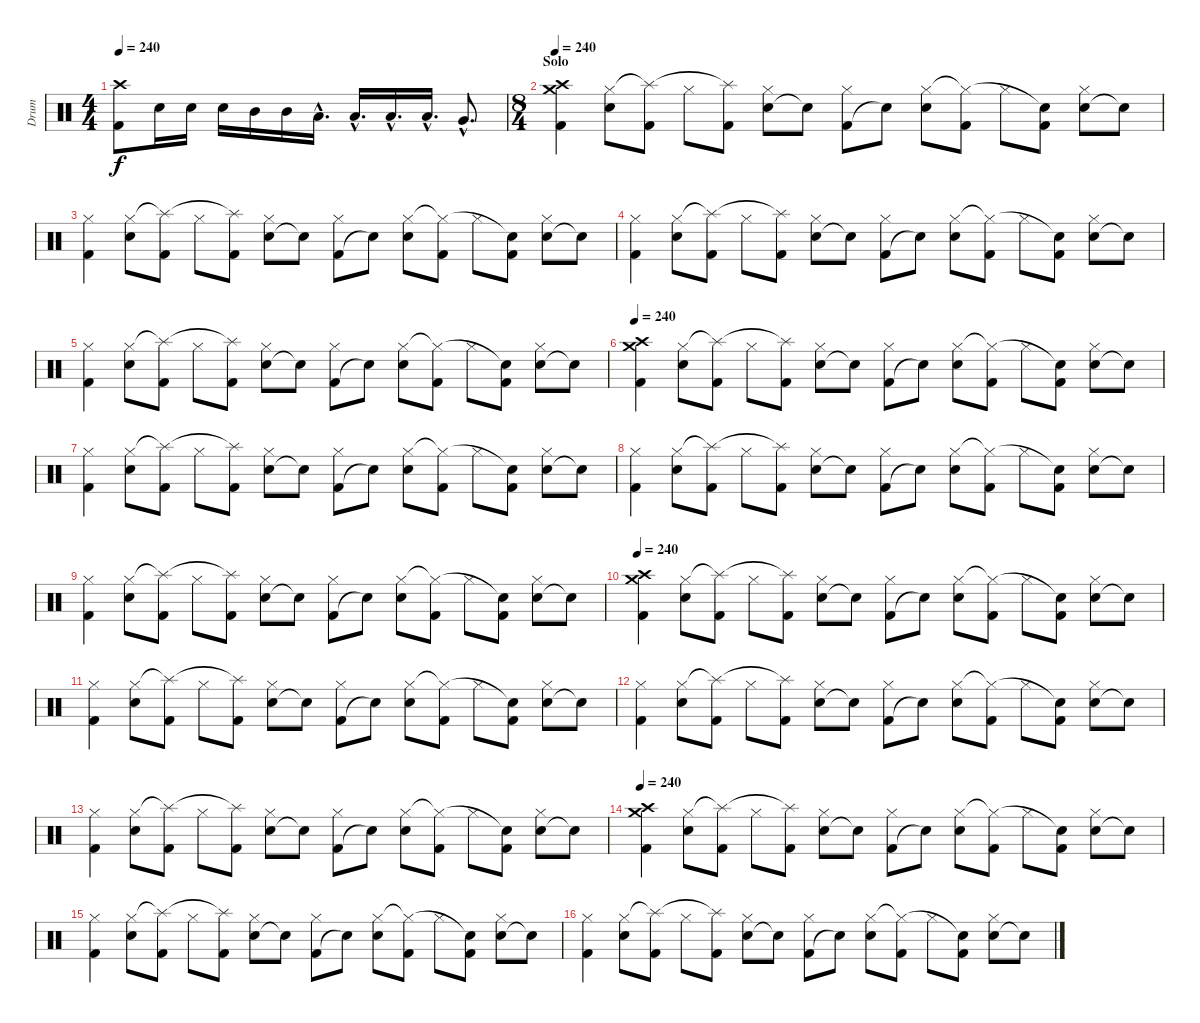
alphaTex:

\track ("Drum" "Drum") {instrument percussion}
\staff {score}
\articulation defaults
\ts (4 4)
\tempo 240
\clef neutral
\ks c
("Kick (hit) 2" "Crash high (hit)").8{dy f} "Electric Snare (hit)".16 "Electric Snare (hit)".16 "Electric Snare (hit)".16 "Mid Tom (hit)".16 "Mid Tom (hit)".16 "Low Tom (hit)"{hac}.16{d} "Low Tom (hit)"{hac}.16{d} "Low Floor Tom (hit)"{hac}.16{d} "Low Floor Tom (hit)"{hac}.16{d} "Very Low Tom (hit)"{hac}.8{d} |
\ts (8 4)
\section ("" "Solo")
\tempo 240
("Kick (hit) 2" "Crash high (hit)" "Crash medium (hit)").4 ("Electric Snare (hit)" "Hi-Hat (closed)").8 ("Kick (hit) 2" "Splash (hit)"{t}).8 "Hi-Hat (closed)".8 ("Kick (hit) 2" "Splash (hit)"{t}).8 ("Electric Snare (hit)" "Hi-Hat (closed)").8 "Snare (hit)"{t}.8 ("Kick (hit) 2" "Hi-Hat (closed)").8 "Snare (hit)"{t}.8 ("Electric Snare (hit)" "Hi-Hat (closed)").8 ("Kick (hit) 2" "Hi-Hat (closed)"{t}).8 "Hi-Hat (closed)".8 ("Kick (hit) 2" "Snare (hit)"{t}).8 ("Electric Snare (hit)" "Hi-Hat (closed)").8 "Snare (hit)"{t}.8 |
("Kick (hit) 2" "Hi-Hat (closed)").4 ("Electric Snare (hit)" "Hi-Hat (closed)").8 ("Kick (hit) 2" "Splash (hit)"{t}).8 "Hi-Hat (closed)".8 ("Kick (hit) 2" "Splash (hit)"{t}).8 ("Electric Snare (hit)" "Hi-Hat (closed)").8 "Snare (hit)"{t}.8 ("Kick (hit) 2" "Hi-Hat (closed)").8 "Snare (hit)"{t}.8 ("Electric Snare (hit)" "Hi-Hat (closed)").8 ("Kick (hit) 2" "Hi-Hat (closed)"{t}).8 "Hi-Hat (closed)".8 ("Kick (hit) 2" "Snare (hit)"{t}).8 ("Electric Snare (hit)" "Hi-Hat (closed)").8 "Snare (hit)"{t}.8 |
("Kick (hit) 2" "Hi-Hat (closed)").4 ("Electric Snare (hit)" "Hi-Hat (closed)").8 ("Kick (hit) 2" "Splash (hit)"{t}).8 "Hi-Hat (closed)".8 ("Kick (hit) 2" "Splash (hit)"{t}).8 ("Electric Snare (hit)" "Hi-Hat (closed)").8 "Snare (hit)"{t}.8 ("Kick (hit) 2" "Hi-Hat (closed)").8 "Snare (hit)"{t}.8 ("Electric Snare (hit)" "Hi-Hat (closed)").8 ("Kick (hit) 2" "Hi-Hat (closed)"{t}).8 "Hi-Hat (closed)".8 ("Kick (hit) 2" "Snare (hit)"{t}).8 ("Electric Snare (hit)" "Hi-Hat (closed)").8 "Snare (hit)"{t}.8 |
("Kick (hit) 2" "Hi-Hat (closed)").4 ("Electric Snare (hit)" "Hi-Hat (closed)").8 ("Kick (hit) 2" "Splash (hit)"{t}).8 "Hi-Hat (closed)".8 ("Kick (hit) 2" "Splash (hit)"{t}).8 ("Electric Snare (hit)" "Hi-Hat (closed)").8 "Snare (hit)"{t}.8 ("Kick (hit) 2" "Hi-Hat (closed)").8 "Snare (hit)"{t}.8 ("Electric Snare (hit)" "Hi-Hat (closed)").8 ("Kick (hit) 2" "Hi-Hat (closed)"{t}).8 "Hi-Hat (closed)".8 ("Kick (hit) 2" "Snare (hit)"{t}).8 ("Electric Snare (hit)" "Hi-Hat (closed)").8 "Snare (hit)"{t}.8 |
\tempo 240
("Kick (hit) 2" "Crash high (hit)" "Crash medium (hit)").4 ("Electric Snare (hit)" "Hi-Hat (closed)").8 ("Kick (hit) 2" "Splash (hit)"{t}).8 "Hi-Hat (closed)".8 ("Kick (hit) 2" "Splash (hit)"{t}).8 ("Electric Snare (hit)" "Hi-Hat (closed)").8 "Snare (hit)"{t}.8 ("Kick (hit) 2" "Hi-Hat (closed)").8 "Snare (hit)"{t}.8 ("Electric Snare (hit)" "Hi-Hat (closed)").8 ("Kick (hit) 2" "Hi-Hat (closed)"{t}).8 "Hi-Hat (closed)".8 ("Kick (hit) 2" "Snare (hit)"{t}).8 ("Electric Snare (hit)" "Hi-Hat (closed)").8 "Snare (hit)"{t}.8 |
("Kick (hit) 2" "Hi-Hat (closed)").4 ("Electric Snare (hit)" "Hi-Hat (closed)").8 ("Kick (hit) 2" "Splash (hit)"{t}).8 "Hi-Hat (closed)".8 ("Kick (hit) 2" "Splash (hit)"{t}).8 ("Electric Snare (hit)" "Hi-Hat (closed)").8 "Snare (hit)"{t}.8 ("Kick (hit) 2" "Hi-Hat (closed)").8 "Snare (hit)"{t}.8 ("Electric Snare (hit)" "Hi-Hat (closed)").8 ("Kick (hit) 2" "Hi-Hat (closed)"{t}).8 "Hi-Hat (closed)".8 ("Kick (hit) 2" "Snare (hit)"{t}).8 ("Electric Snare (hit)" "Hi-Hat (closed)").8 "Snare (hit)"{t}.8 |
("Kick (hit) 2" "Hi-Hat (closed)").4 ("Electric Snare (hit)" "Hi-Hat (closed)").8 ("Kick (hit) 2" "Splash (hit)"{t}).8 "Hi-Hat (closed)".8 ("Kick (hit) 2" "Splash (hit)"{t}).8 ("Electric Snare (hit)" "Hi-Hat (closed)").8 "Snare (hit)"{t}.8 ("Kick (hit) 2" "Hi-Hat (closed)").8 "Snare (hit)"{t}.8 ("Electric Snare (hit)" "Hi-Hat (closed)").8 ("Kick (hit) 2" "Hi-Hat (closed)"{t}).8 "Hi-Hat (closed)".8 ("Kick (hit) 2" "Snare (hit)"{t}).8 ("Electric Snare (hit)" "Hi-Hat (closed)").8 "Snare (hit)"{t}.8 |
("Kick (hit) 2" "Hi-Hat (closed)").4 ("Electric Snare (hit)" "Hi-Hat (closed)").8 ("Kick (hit) 2" "Splash (hit)"{t}).8 "Hi-Hat (closed)".8 ("Kick (hit) 2" "Splash (hit)"{t}).8 ("Electric Snare (hit)" "Hi-Hat (closed)").8 "Snare (hit)"{t}.8 ("Kick (hit) 2" "Hi-Hat (closed)").8 "Snare (hit)"{t}.8 ("Electric Snare (hit)" "Hi-Hat (closed)").8 ("Kick (hit) 2" "Hi-Hat (closed)"{t}).8 "Hi-Hat (closed)".8 ("Kick (hit) 2" "Snare (hit)"{t}).8 ("Electric Snare (hit)" "Hi-Hat (closed)").8 "Snare (hit)"{t}.8 |
\tempo 240
("Kick (hit) 2" "Crash high (hit)" "Crash medium (hit)").4 ("Electric Snare (hit)" "Hi-Hat (closed)").8 ("Kick (hit) 2" "Splash (hit)"{t}).8 "Hi-Hat (closed)".8 ("Kick (hit) 2" "Splash (hit)"{t}).8 ("Electric Snare (hit)" "Hi-Hat (closed)").8 "Snare (hit)"{t}.8 ("Kick (hit) 2" "Hi-Hat (closed)").8 "Snare (hit)"{t}.8 ("Electric Snare (hit)" "Hi-Hat (closed)").8 ("Kick (hit) 2" "Hi-Hat (closed)"{t}).8 "Hi-Hat (closed)".8 ("Kick (hit) 2" "Snare (hit)"{t}).8 ("Electric Snare (hit)" "Hi-Hat (closed)").8 "Snare (hit)"{t}.8 |
("Kick (hit) 2" "Hi-Hat (closed)").4 ("Electric Snare (hit)" "Hi-Hat (closed)").8 ("Kick (hit) 2" "Splash (hit)"{t}).8 "Hi-Hat (closed)".8 ("Kick (hit) 2" "Splash (hit)"{t}).8 ("Electric Snare (hit)" "Hi-Hat (closed)").8 "Snare (hit)"{t}.8 ("Kick (hit) 2" "Hi-Hat (closed)").8 "Snare (hit)"{t}.8 ("Electric Snare (hit)" "Hi-Hat (closed)").8 ("Kick (hit) 2" "Hi-Hat (closed)"{t}).8 "Hi-Hat (closed)".8 ("Kick (hit) 2" "Snare (hit)"{t}).8 ("Electric Snare (hit)" "Hi-Hat (closed)").8 "Snare (hit)"{t}.8 |
("Kick (hit) 2" "Hi-Hat (closed)").4 ("Electric Snare (hit)" "Hi-Hat (closed)").8 ("Kick (hit) 2" "Splash (hit)"{t}).8 "Hi-Hat (closed)".8 ("Kick (hit) 2" "Splash (hit)"{t}).8 ("Electric Snare (hit)" "Hi-Hat (closed)").8 "Snare (hit)"{t}.8 ("Kick (hit) 2" "Hi-Hat (closed)").8 "Snare (hit)"{t}.8 ("Electric Snare (hit)" "Hi-Hat (closed)").8 ("Kick (hit) 2" "Hi-Hat (closed)"{t}).8 "Hi-Hat (closed)".8 ("Kick (hit) 2" "Snare (hit)"{t}).8 ("Electric Snare (hit)" "Hi-Hat (closed)").8 "Snare (hit)"{t}.8 |
("Kick (hit) 2" "Hi-Hat (closed)").4 ("Electric Snare (hit)" "Hi-Hat (closed)").8 ("Kick (hit) 2" "Splash (hit)"{t}).8 "Hi-Hat (closed)".8 ("Kick (hit) 2" "Splash (hit)"{t}).8 ("Electric Snare (hit)" "Hi-Hat (closed)").8 "Snare (hit)"{t}.8 ("Kick (hit) 2" "Hi-Hat (closed)").8 "Snare (hit)"{t}.8 ("Electric Snare (hit)" "Hi-Hat (closed)").8 ("Kick (hit) 2" "Hi-Hat (closed)"{t}).8 "Hi-Hat (closed)".8 ("Kick (hit) 2" "Snare (hit)"{t}).8 ("Electric Snare (hit)" "Hi-Hat (closed)").8 "Snare (hit)"{t}.8 |
\tempo 240
("Kick (hit) 2" "Crash high (hit)" "Crash medium (hit)").4 ("Electric Snare (hit)" "Hi-Hat (closed)").8 ("Kick (hit) 2" "Splash (hit)"{t}).8 "Hi-Hat (closed)".8 ("Kick (hit) 2" "Splash (hit)"{t}).8 ("Electric Snare (hit)" "Hi-Hat (closed)").8 "Snare (hit)"{t}.8 ("Kick (hit) 2" "Hi-Hat (closed)").8 "Snare (hit)"{t}.8 ("Electric Snare (hit)" "Hi-Hat (closed)").8 ("Kick (hit) 2" "Hi-Hat (closed)"{t}).8 "Hi-Hat (closed)".8 ("Kick (hit) 2" "Snare (hit)"{t}).8 ("Electric Snare (hit)" "Hi-Hat (closed)").8 "Snare (hit)"{t}.8 |
("Kick (hit) 2" "Hi-Hat (closed)").4 ("Electric Snare (hit)" "Hi-Hat (closed)").8 ("Kick (hit) 2" "Splash (hit)"{t}).8 "Hi-Hat (closed)".8 ("Kick (hit) 2" "Splash (hit)"{t}).8 ("Electric Snare (hit)" "Hi-Hat (closed)").8 "Snare (hit)"{t}.8 ("Kick (hit) 2" "Hi-Hat (closed)").8 "Snare (hit)"{t}.8 ("Electric Snare (hit)" "Hi-Hat (closed)").8 ("Kick (hit) 2" "Hi-Hat (closed)"{t}).8 "Hi-Hat (closed)".8 ("Kick (hit) 2" "Snare (hit)"{t}).8 ("Electric Snare (hit)" "Hi-Hat (closed)").8 "Snare (hit)"{t}.8 |
("Kick (hit) 2" "Hi-Hat (closed)").4 ("Electric Snare (hit)" "Hi-Hat (closed)").8 ("Kick (hit) 2" "Splash (hit)"{t}).8 "Hi-Hat (closed)".8 ("Kick (hit) 2" "Splash (hit)"{t}).8 ("Electric Snare (hit)" "Hi-Hat (closed)").8 "Snare (hit)"{t}.8 ("Kick (hit) 2" "Hi-Hat (closed)").8 "Snare (hit)"{t}.8 ("Electric Snare (hit)" "Hi-Hat (closed)").8 ("Kick (hit) 2" "Hi-Hat (closed)"{t}).8 "Hi-Hat (closed)".8 ("Kick (hit) 2" "Snare (hit)"{t}).8 ("Electric Snare (hit)" "Hi-Hat (closed)").8 "Snare (hit)"{t}.8
